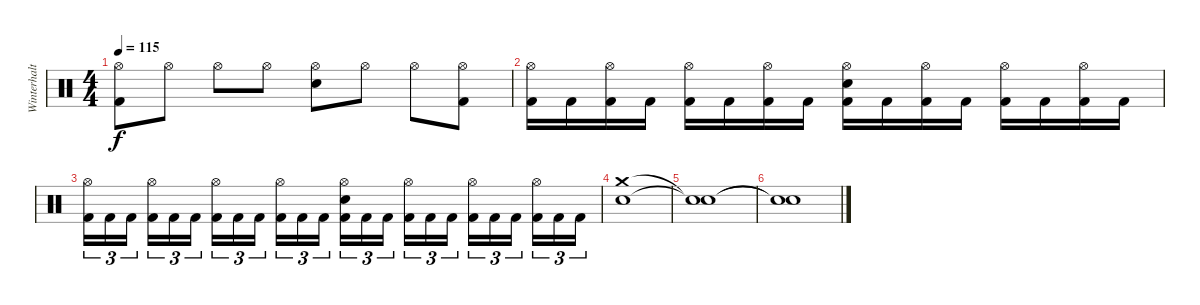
\track ("Winterhalten" "Winterhalt") {instrument percussion}
\staff {score}
\articulation defaults
\ts (4 4)
\tempo 115
\clef neutral
\ks c
("Hi-Hat (open)" "Kick (hit) 2").8{dy f} "Hi-Hat (open)".8 "Hi-Hat (open)".8 "Hi-Hat (open)".8 ("Snare (hit) 2" "Hi-Hat (open)").8 "Hi-Hat (open)".8 "Hi-Hat (open)".8 ("Hi-Hat (open)" "Kick (hit) 2").8 |
("Hi-Hat (open)" "Kick (hit) 2").16 "Kick (hit) 2".16 ("Hi-Hat (open)" "Kick (hit) 2").16 "Kick (hit) 2".16 ("Hi-Hat (open)" "Kick (hit) 2").16 "Kick (hit) 2".16 ("Hi-Hat (open)" "Kick (hit) 2").16 "Kick (hit) 2".16 ("Snare (hit) 2" "Hi-Hat (open)" "Kick (hit) 2").16 "Kick (hit) 2".16 ("Hi-Hat (open)" "Kick (hit) 2").16 "Kick (hit) 2".16 ("Hi-Hat (open)" "Kick (hit) 2").16 "Kick (hit) 2".16 ("Hi-Hat (open)" "Kick (hit) 2").16 "Kick (hit) 2".16 |
("Hi-Hat (open)" "Kick (hit) 2").16{tu (3 2)} "Kick (hit) 2".16{tu (3 2)} "Kick (hit) 2".16{tu (3 2) beam splitsecondary} ("Hi-Hat (open)" "Kick (hit) 2").16{tu (3 2)} "Kick (hit) 2".16{tu (3 2)} "Kick (hit) 2".16{tu (3 2)} ("Hi-Hat (open)" "Kick (hit) 2").16{tu (3 2)} "Kick (hit) 2".16{tu (3 2)} "Kick (hit) 2".16{tu (3 2) beam splitsecondary} ("Hi-Hat (open)" "Kick (hit) 2").16{tu (3 2)} "Kick (hit) 2".16{tu (3 2)} "Kick (hit) 2".16{tu (3 2)} ("Snare (hit) 2" "Hi-Hat (open)" "Kick (hit) 2").16{tu (3 2)} "Kick (hit) 2".16{tu (3 2)} "Kick (hit) 2".16{tu (3 2) beam splitsecondary} ("Hi-Hat (open)" "Kick (hit) 2").16{tu (3 2)} "Kick (hit) 2".16{tu (3 2)} "Kick (hit) 2".16{tu (3 2)} ("Hi-Hat (open)" "Kick (hit) 2").16{tu (3 2)} "Kick (hit) 2".16{tu (3 2)} "Kick (hit) 2".16{tu (3 2) beam splitsecondary} ("Hi-Hat (open)" "Kick (hit) 2").16{tu (3 2)} "Kick (hit) 2".16{tu (3 2)} "Kick (hit) 2".16{tu (3 2)} |
("Snare (hit) 2" "Crash medium (hit)").1 |
("Snare (hit)"{t} "Snare (hit)"{t}).1 |
("Snare (hit)"{t} "Snare (hit)"{t}).1
